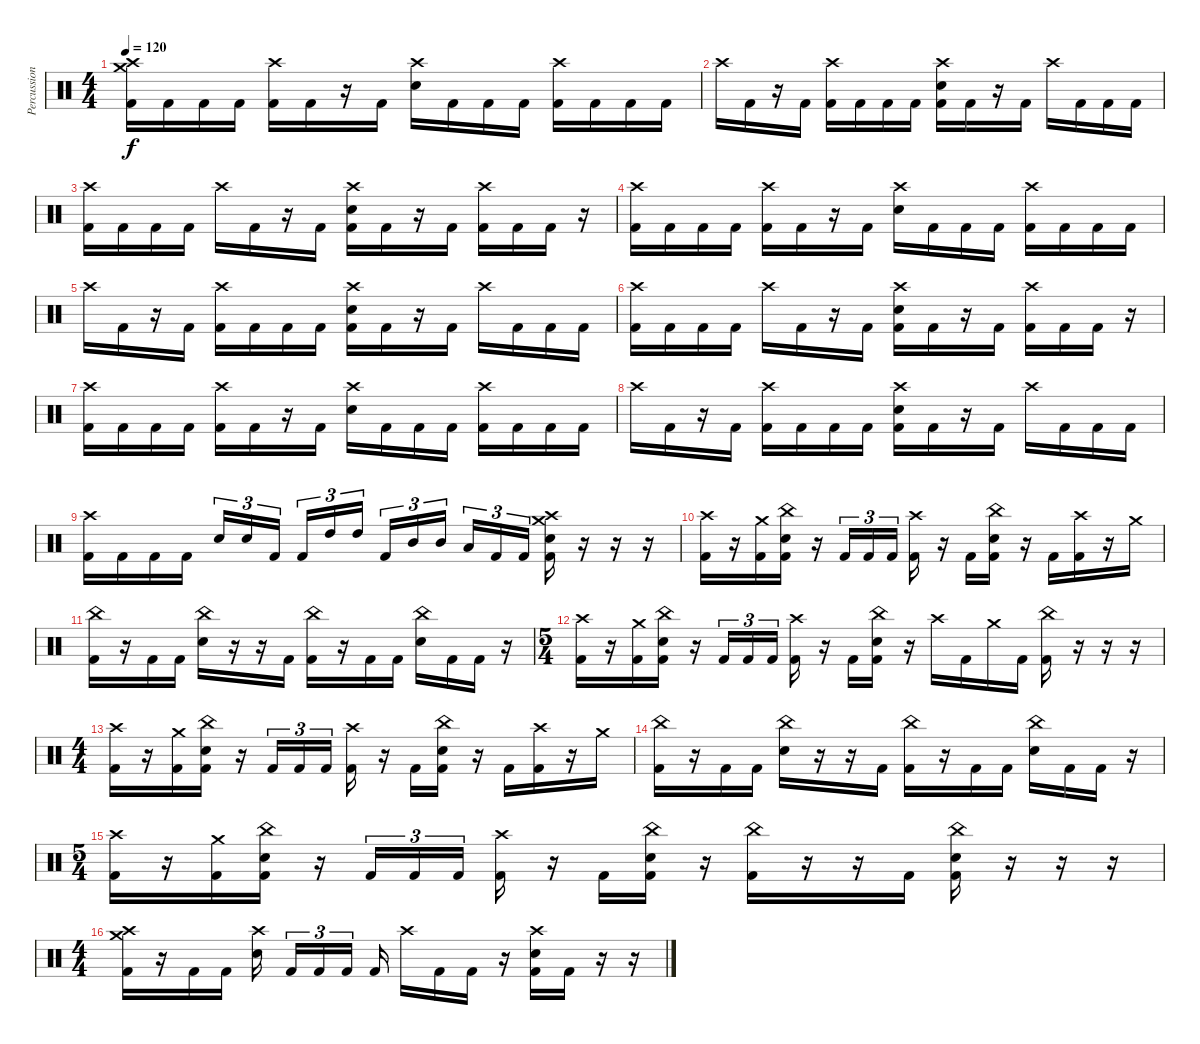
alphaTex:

\track ("Percussion" "Percussion") {instrument percussion}
\staff {score}
\articulation defaults
\ts (4 4)
\tempo 120
\clef neutral
\ks c
("Crash high (hit)" "Crash medium (hit)" "Kick (hit) 2").16{dy f} "Kick (hit) 2".16 "Kick (hit) 2".16 "Kick (hit) 2".16 ("Crash high (hit)" "Kick (hit) 2").16 "Kick (hit) 2".16 r.16 "Kick (hit) 2".16 ("Crash high (hit)" "Electric Snare (hit)").16 "Kick (hit) 2".16 "Kick (hit) 2".16 "Kick (hit) 2".16 ("Crash high (hit)" "Kick (hit) 2").16 "Kick (hit) 2".16 "Kick (hit) 2".16 "Kick (hit) 2".16 |
"Crash high (hit)".16 "Kick (hit) 2".16 r.16 "Kick (hit) 2".16 ("Crash high (hit)" "Kick (hit) 2").16 "Kick (hit) 2".16 "Kick (hit) 2".16 "Kick (hit) 2".16 ("Crash high (hit)" "Electric Snare (hit)" "Kick (hit) 2").16 "Kick (hit) 2".16 r.16 "Kick (hit) 2".16 "Crash high (hit)".16 "Kick (hit) 2".16 "Kick (hit) 2".16 "Kick (hit) 2".16 |
("Crash high (hit)" "Kick (hit) 2").16 "Kick (hit) 2".16 "Kick (hit) 2".16 "Kick (hit) 2".16 "Crash high (hit)".16 "Kick (hit) 2".16 r.16 "Kick (hit) 2".16 ("Crash high (hit)" "Electric Snare (hit)" "Kick (hit) 2").16 "Kick (hit) 2".16 r.16 "Kick (hit) 2".16 ("Crash high (hit)" "Kick (hit) 2").16 "Kick (hit) 2".16 "Kick (hit) 2".16 r.16 |
("Crash high (hit)" "Kick (hit) 2").16 "Kick (hit) 2".16 "Kick (hit) 2".16 "Kick (hit) 2".16 ("Crash high (hit)" "Kick (hit) 2").16 "Kick (hit) 2".16 r.16 "Kick (hit) 2".16 ("Crash high (hit)" "Electric Snare (hit)").16 "Kick (hit) 2".16 "Kick (hit) 2".16 "Kick (hit) 2".16 ("Crash high (hit)" "Kick (hit) 2").16 "Kick (hit) 2".16 "Kick (hit) 2".16 "Kick (hit) 2".16 |
"Crash high (hit)".16 "Kick (hit) 2".16 r.16 "Kick (hit) 2".16 ("Crash high (hit)" "Kick (hit) 2").16 "Kick (hit) 2".16 "Kick (hit) 2".16 "Kick (hit) 2".16 ("Crash high (hit)" "Electric Snare (hit)" "Kick (hit) 2").16 "Kick (hit) 2".16 r.16 "Kick (hit) 2".16 "Crash high (hit)".16 "Kick (hit) 2".16 "Kick (hit) 2".16 "Kick (hit) 2".16 |
("Crash high (hit)" "Kick (hit) 2").16 "Kick (hit) 2".16 "Kick (hit) 2".16 "Kick (hit) 2".16 "Crash high (hit)".16 "Kick (hit) 2".16 r.16 "Kick (hit) 2".16 ("Crash high (hit)" "Electric Snare (hit)" "Kick (hit) 2").16 "Kick (hit) 2".16 r.16 "Kick (hit) 2".16 ("Crash high (hit)" "Kick (hit) 2").16 "Kick (hit) 2".16 "Kick (hit) 2".16 r.16 |
("Crash high (hit)" "Kick (hit) 2").16 "Kick (hit) 2".16 "Kick (hit) 2".16 "Kick (hit) 2".16 ("Crash high (hit)" "Kick (hit) 2").16 "Kick (hit) 2".16 r.16 "Kick (hit) 2".16 ("Crash high (hit)" "Electric Snare (hit)").16 "Kick (hit) 2".16 "Kick (hit) 2".16 "Kick (hit) 2".16 ("Crash high (hit)" "Kick (hit) 2").16 "Kick (hit) 2".16 "Kick (hit) 2".16 "Kick (hit) 2".16 |
"Crash high (hit)".16 "Kick (hit) 2".16 r.16 "Kick (hit) 2".16 ("Crash high (hit)" "Kick (hit) 2").16 "Kick (hit) 2".16 "Kick (hit) 2".16 "Kick (hit) 2".16 ("Crash high (hit)" "Electric Snare (hit)" "Kick (hit) 2").16 "Kick (hit) 2".16 r.16 "Kick (hit) 2".16 "Crash high (hit)".16 "Kick (hit) 2".16 "Kick (hit) 2".16 "Kick (hit) 2".16 |
("Crash high (hit)" "Kick (hit) 2").16 "Kick (hit) 2".16 "Kick (hit) 2".16 "Kick (hit) 2".16 "Electric Snare (hit)".16{tu (3 2)} "Electric Snare (hit)".16{tu (3 2)} "Kick (hit) 2".16{tu (3 2) beam splitsecondary} "Kick (hit) 2".16{tu (3 2)} "High Tom (hit)".16{tu (3 2)} "High Tom (hit)".16{tu (3 2)} "Kick (hit) 2".16{tu (3 2)} "Mid Tom (hit)".16{tu (3 2)} "Mid Tom (hit)".16{tu (3 2) beam splitsecondary} "Low Tom (hit)".16{tu (3 2)} "Kick (hit) 2".16{tu (3 2)} "Kick (hit) 2".16{tu (3 2)} ("Crash high (hit)" "Crash medium (hit)" "Electric Snare (hit)" "Kick (hit) 2").16 r.16 r.16 r.16 |
("Crash high (hit)" "Kick (hit) 2").16 r.16 ("Crash medium (hit)" "Kick (hit) 2").16 ("China (hit)" "Electric Snare (hit)" "Kick (hit) 2").16 r.16 "Kick (hit) 2".16{tu (3 2)} "Kick (hit) 2".16{tu (3 2)} "Kick (hit) 2".16{tu (3 2) beam splitsecondary} ("Crash high (hit)" "Kick (hit) 2").16 r.16 "Kick (hit) 2".16 ("China (hit)" "Electric Snare (hit)" "Kick (hit) 2").16 r.16 "Kick (hit) 2".16 ("Crash high (hit)" "Kick (hit) 2").16 r.16 "Crash medium (hit)".16 |
("China (hit)" "Kick (hit) 2").16 r.16 "Kick (hit) 2".16 "Kick (hit) 2".16 ("China (hit)" "Electric Snare (hit)").16 r.16 r.16 "Kick (hit) 2".16 ("China (hit)" "Kick (hit) 2").16 r.16 "Kick (hit) 2".16 "Kick (hit) 2".16 ("China (hit)" "Electric Snare (hit)").16 "Kick (hit) 2".16 "Kick (hit) 2".16 r.16 |
\ts (5 4)
("Crash high (hit)" "Kick (hit) 2").16 r.16 ("Crash medium (hit)" "Kick (hit) 2").16 ("China (hit)" "Electric Snare (hit)" "Kick (hit) 2").16 r.16 "Kick (hit) 2".16{tu (3 2)} "Kick (hit) 2".16{tu (3 2)} "Kick (hit) 2".16{tu (3 2) beam splitsecondary} ("Crash high (hit)" "Kick (hit) 2").16 r.16 "Kick (hit) 2".16 ("China (hit)" "Electric Snare (hit)" "Kick (hit) 2").16 r.16 "Crash high (hit)".16 "Kick (hit) 2".16 "Crash medium (hit)".16 "Kick (hit) 2".16 ("China (hit)" "Kick (hit) 2").16 r.16 r.16 r.16 |
\ts (4 4)
("Crash high (hit)" "Kick (hit) 2").16 r.16 ("Crash medium (hit)" "Kick (hit) 2").16 ("China (hit)" "Electric Snare (hit)" "Kick (hit) 2").16 r.16 "Kick (hit) 2".16{tu (3 2)} "Kick (hit) 2".16{tu (3 2)} "Kick (hit) 2".16{tu (3 2) beam splitsecondary} ("Crash high (hit)" "Kick (hit) 2").16 r.16 "Kick (hit) 2".16 ("China (hit)" "Electric Snare (hit)" "Kick (hit) 2").16 r.16 "Kick (hit) 2".16 ("Crash high (hit)" "Kick (hit) 2").16 r.16 "Crash medium (hit)".16 |
("China (hit)" "Kick (hit) 2").16 r.16 "Kick (hit) 2".16 "Kick (hit) 2".16 ("China (hit)" "Electric Snare (hit)").16 r.16 r.16 "Kick (hit) 2".16 ("China (hit)" "Kick (hit) 2").16 r.16 "Kick (hit) 2".16 "Kick (hit) 2".16 ("China (hit)" "Electric Snare (hit)").16 "Kick (hit) 2".16 "Kick (hit) 2".16 r.16 |
\ts (5 4)
("Crash high (hit)" "Kick (hit) 2").16 r.16 ("Crash medium (hit)" "Kick (hit) 2").16 ("China (hit)" "Electric Snare (hit)" "Kick (hit) 2").16 r.16 "Kick (hit) 2".16{tu (3 2)} "Kick (hit) 2".16{tu (3 2)} "Kick (hit) 2".16{tu (3 2) beam splitsecondary} ("Crash high (hit)" "Kick (hit) 2").16 r.16 "Kick (hit) 2".16 ("China (hit)" "Electric Snare (hit)" "Kick (hit) 2").16 r.16 ("China (hit)" "Kick (hit) 2").16 r.16 r.16 "Kick (hit) 2".16 ("China (hit)" "Electric Snare (hit)" "Kick (hit) 2").16 r.16 r.16 r.16 |
\ts (4 4)
("Crash high (hit)" "Crash medium (hit)" "Kick (hit) 2").16 r.16 "Kick (hit) 2".16 "Kick (hit) 2".16 ("Crash high (hit)" "Electric Snare (hit)").16{beam splitsecondary} "Kick (hit) 2".16{tu (3 2)} "Kick (hit) 2".16{tu (3 2)} "Kick (hit) 2".16{tu (3 2) beam splitsecondary} "Kick (hit) 2".16 "Crash high (hit)".16 "Kick (hit) 2".16 "Kick (hit) 2".16 r.16 ("Crash high (hit)" "Electric Snare (hit)" "Kick (hit) 2").16 "Kick (hit) 2".16 r.16 r.16
